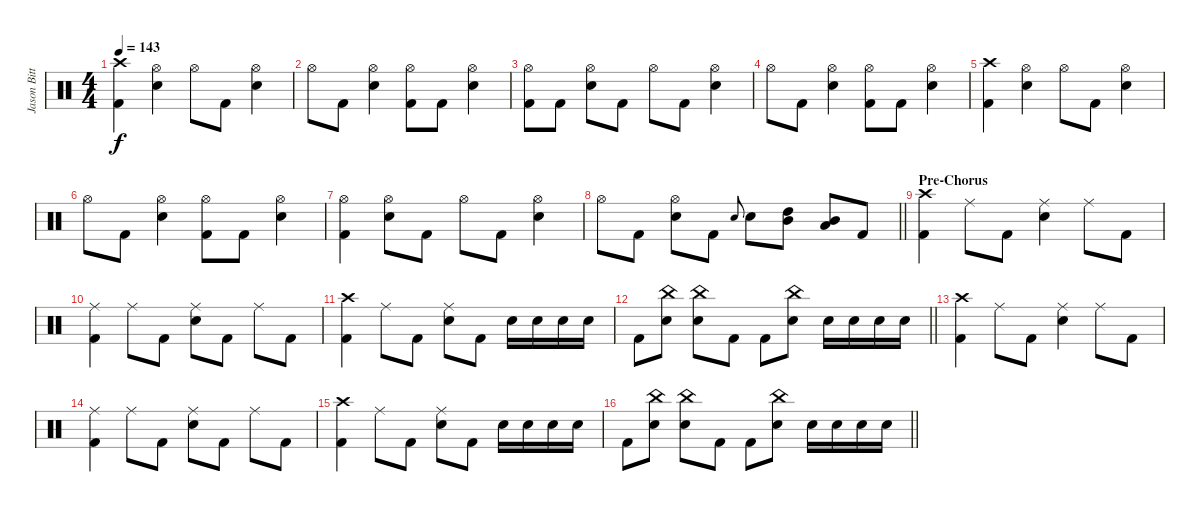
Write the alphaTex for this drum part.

\track ("Jason Bittner" "Jason Bitt") {instrument percussion}
\staff {score}
\articulation defaults
\ts (4 4)
\tempo 143
\clef neutral
\ks c
("Crash high (hit)" "Kick (hit) 2").4{dy f} ("Hi-Hat (open)" "Electric Snare (hit)").4 "Hi-Hat (open)".8 "Kick (hit) 2".8 ("Hi-Hat (open)" "Electric Snare (hit)").4 |
"Hi-Hat (open)".8 "Kick (hit) 2".8 ("Hi-Hat (open)" "Electric Snare (hit)").4 ("Hi-Hat (open)" "Kick (hit) 2").8 "Kick (hit) 2".8 ("Hi-Hat (open)" "Electric Snare (hit)").4 |
("Hi-Hat (open)" "Kick (hit) 2").8 "Kick (hit) 2".8 ("Hi-Hat (open)" "Electric Snare (hit)").8 "Kick (hit) 2".8 "Hi-Hat (open)".8 "Kick (hit) 2".8 ("Hi-Hat (open)" "Electric Snare (hit)").4 |
"Hi-Hat (open)".8 "Kick (hit) 2".8 ("Hi-Hat (open)" "Electric Snare (hit)").4 ("Hi-Hat (open)" "Kick (hit) 2").8 "Kick (hit) 2".8 ("Hi-Hat (open)" "Electric Snare (hit)").4 |
("Crash high (hit)" "Kick (hit) 2").4 ("Hi-Hat (open)" "Electric Snare (hit)").4 "Hi-Hat (open)".8 "Kick (hit) 2".8 ("Hi-Hat (open)" "Electric Snare (hit)").4 |
"Hi-Hat (open)".8 "Kick (hit) 2".8 ("Hi-Hat (open)" "Electric Snare (hit)").4 ("Hi-Hat (open)" "Kick (hit) 2").8 "Kick (hit) 2".8 ("Hi-Hat (open)" "Electric Snare (hit)").4 |
("Hi-Hat (open)" "Kick (hit) 2").4 ("Hi-Hat (open)" "Electric Snare (hit)").8 "Kick (hit) 2".8 "Hi-Hat (open)".8 "Kick (hit) 2".8 ("Hi-Hat (open)" "Electric Snare (hit)").4 |
\barLineRight lightlight "Hi-Hat (open)".8 "Kick (hit) 2".8
("Hi-Hat (open)" "Electric Snare (hit)").8 "Kick (hit) 2".8 "Electric Snare (hit)".8{gr onbeat} "Electric Snare (hit)".8 ("High Tom (hit)" "Mid Tom (hit)").8 ("Mid Tom (hit)" "Low Tom (hit)").8 "Kick (hit) 2".8 |
\section ("" "Pre-Chorus")
("Crash high (hit)" "Kick (hit) 2").4 "Ride (middle)".8 "Kick (hit) 2".8 ("Ride (middle)" "Electric Snare (hit)").4 "Ride (middle)".8 "Kick (hit) 2".8 |
("Ride (middle)" "Kick (hit) 2").4 "Ride (middle)".8 "Kick (hit) 2".8 ("Ride (middle)" "Electric Snare (hit)").8 "Kick (hit) 2".8 "Ride (middle)".8 "Kick (hit) 2".8 |
("Crash high (hit)" "Kick (hit) 2").4 "Ride (middle)".8 "Kick (hit) 2".8 ("Ride (middle)" "Electric Snare (hit)").8 "Kick (hit) 2".8 "Electric Snare (hit)".16 "Electric Snare (hit)".16 "Electric Snare (hit)".16 "Electric Snare (hit)".16 |
\barLineRight lightlight "Kick (hit) 2".8
("China (hit)" "Electric Snare (hit)").8 ("China (hit)" "Electric Snare (hit)").8 "Kick (hit) 2".8 "Kick (hit) 2".8 ("China (hit)" "Electric Snare (hit)").8 "Electric Snare (hit)".16 "Electric Snare (hit)".16 "Electric Snare (hit)".16 "Electric Snare (hit)".16 |
("Crash high (hit)" "Kick (hit) 2").4 "Ride (middle)".8 "Kick (hit) 2".8 ("Ride (middle)" "Electric Snare (hit)").4 "Ride (middle)".8 "Kick (hit) 2".8 |
("Ride (middle)" "Kick (hit) 2").4 "Ride (middle)".8 "Kick (hit) 2".8 ("Ride (middle)" "Electric Snare (hit)").8 "Kick (hit) 2".8 "Ride (middle)".8 "Kick (hit) 2".8 |
("Crash high (hit)" "Kick (hit) 2").4 "Ride (middle)".8 "Kick (hit) 2".8 ("Ride (middle)" "Electric Snare (hit)").8 "Kick (hit) 2".8 "Electric Snare (hit)".16 "Electric Snare (hit)".16 "Electric Snare (hit)".16 "Electric Snare (hit)".16 |
\barLineRight lightlight "Kick (hit) 2".8
("China (hit)" "Electric Snare (hit)").8 ("China (hit)" "Electric Snare (hit)").8 "Kick (hit) 2".8 "Kick (hit) 2".8 ("China (hit)" "Electric Snare (hit)").8 "Electric Snare (hit)".16 "Electric Snare (hit)".16 "Electric Snare (hit)".16 "Electric Snare (hit)".16
